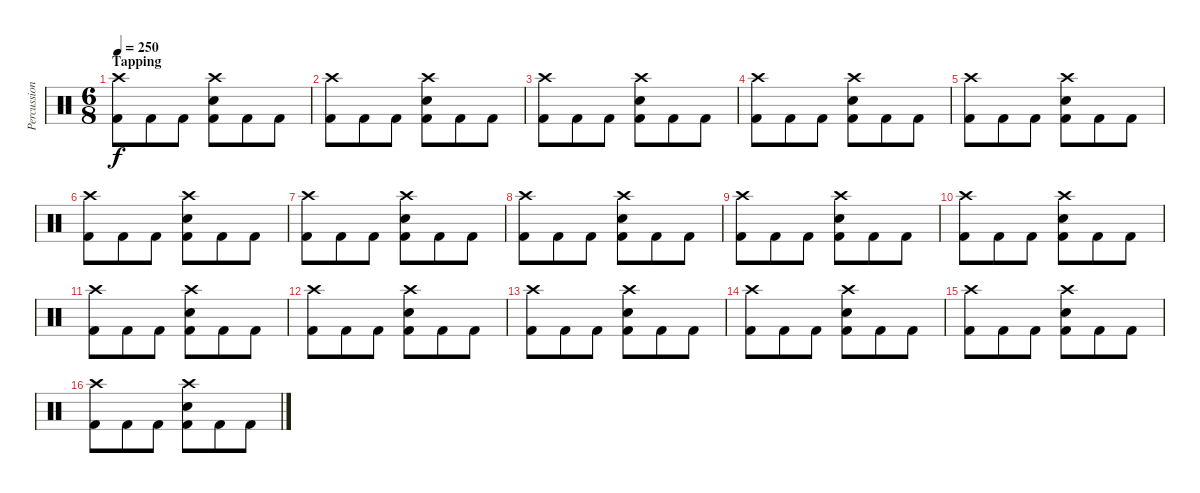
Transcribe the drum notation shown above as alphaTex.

\track ("Percussion" "Percussion") {instrument percussion}
\staff {score}
\articulation defaults
\ts (6 8)
\section ("" "Tapping")
\tempo 250
\clef neutral
\ks c
("Crash high (hit)" "Kick (hit) 2").8{dy f} "Kick (hit) 2".8 "Kick (hit) 2".8 ("Crash high (hit)" "Electric Snare (hit)" "Kick (hit) 2").8 "Kick (hit) 2".8 "Kick (hit) 2".8 |
("Crash high (hit)" "Kick (hit) 2").8 "Kick (hit) 2".8 "Kick (hit) 2".8 ("Crash high (hit)" "Electric Snare (hit)" "Kick (hit) 2").8 "Kick (hit) 2".8 "Kick (hit) 2".8 |
("Crash high (hit)" "Kick (hit) 2").8 "Kick (hit) 2".8 "Kick (hit) 2".8 ("Crash high (hit)" "Electric Snare (hit)" "Kick (hit) 2").8 "Kick (hit) 2".8 "Kick (hit) 2".8 |
("Crash high (hit)" "Kick (hit) 2").8 "Kick (hit) 2".8 "Kick (hit) 2".8 ("Crash high (hit)" "Electric Snare (hit)" "Kick (hit) 2").8 "Kick (hit) 2".8 "Kick (hit) 2".8 |
("Crash high (hit)" "Kick (hit) 2").8 "Kick (hit) 2".8 "Kick (hit) 2".8 ("Crash high (hit)" "Electric Snare (hit)" "Kick (hit) 2").8 "Kick (hit) 2".8 "Kick (hit) 2".8 |
("Crash high (hit)" "Kick (hit) 2").8 "Kick (hit) 2".8 "Kick (hit) 2".8 ("Crash high (hit)" "Electric Snare (hit)" "Kick (hit) 2").8 "Kick (hit) 2".8 "Kick (hit) 2".8 |
("Crash high (hit)" "Kick (hit) 2").8 "Kick (hit) 2".8 "Kick (hit) 2".8 ("Crash high (hit)" "Electric Snare (hit)" "Kick (hit) 2").8 "Kick (hit) 2".8 "Kick (hit) 2".8 |
("Crash high (hit)" "Kick (hit) 2").8 "Kick (hit) 2".8 "Kick (hit) 2".8 ("Crash high (hit)" "Electric Snare (hit)" "Kick (hit) 2").8 "Kick (hit) 2".8 "Kick (hit) 2".8 |
("Crash high (hit)" "Kick (hit) 2").8 "Kick (hit) 2".8 "Kick (hit) 2".8 ("Crash high (hit)" "Electric Snare (hit)" "Kick (hit) 2").8 "Kick (hit) 2".8 "Kick (hit) 2".8 |
("Crash high (hit)" "Kick (hit) 2").8 "Kick (hit) 2".8 "Kick (hit) 2".8 ("Crash high (hit)" "Electric Snare (hit)" "Kick (hit) 2").8 "Kick (hit) 2".8 "Kick (hit) 2".8 |
("Crash high (hit)" "Kick (hit) 2").8 "Kick (hit) 2".8 "Kick (hit) 2".8 ("Crash high (hit)" "Electric Snare (hit)" "Kick (hit) 2").8 "Kick (hit) 2".8 "Kick (hit) 2".8 |
("Crash high (hit)" "Kick (hit) 2").8 "Kick (hit) 2".8 "Kick (hit) 2".8 ("Crash high (hit)" "Electric Snare (hit)" "Kick (hit) 2").8 "Kick (hit) 2".8 "Kick (hit) 2".8 |
("Crash high (hit)" "Kick (hit) 2").8 "Kick (hit) 2".8 "Kick (hit) 2".8 ("Crash high (hit)" "Electric Snare (hit)" "Kick (hit) 2").8 "Kick (hit) 2".8 "Kick (hit) 2".8 |
("Crash high (hit)" "Kick (hit) 2").8 "Kick (hit) 2".8 "Kick (hit) 2".8 ("Crash high (hit)" "Electric Snare (hit)" "Kick (hit) 2").8 "Kick (hit) 2".8 "Kick (hit) 2".8 |
("Crash high (hit)" "Kick (hit) 2").8 "Kick (hit) 2".8 "Kick (hit) 2".8 ("Crash high (hit)" "Electric Snare (hit)" "Kick (hit) 2").8 "Kick (hit) 2".8 "Kick (hit) 2".8 |
("Crash high (hit)" "Kick (hit) 2").8 "Kick (hit) 2".8 "Kick (hit) 2".8 ("Crash high (hit)" "Electric Snare (hit)" "Kick (hit) 2").8 "Kick (hit) 2".8 "Kick (hit) 2".8
